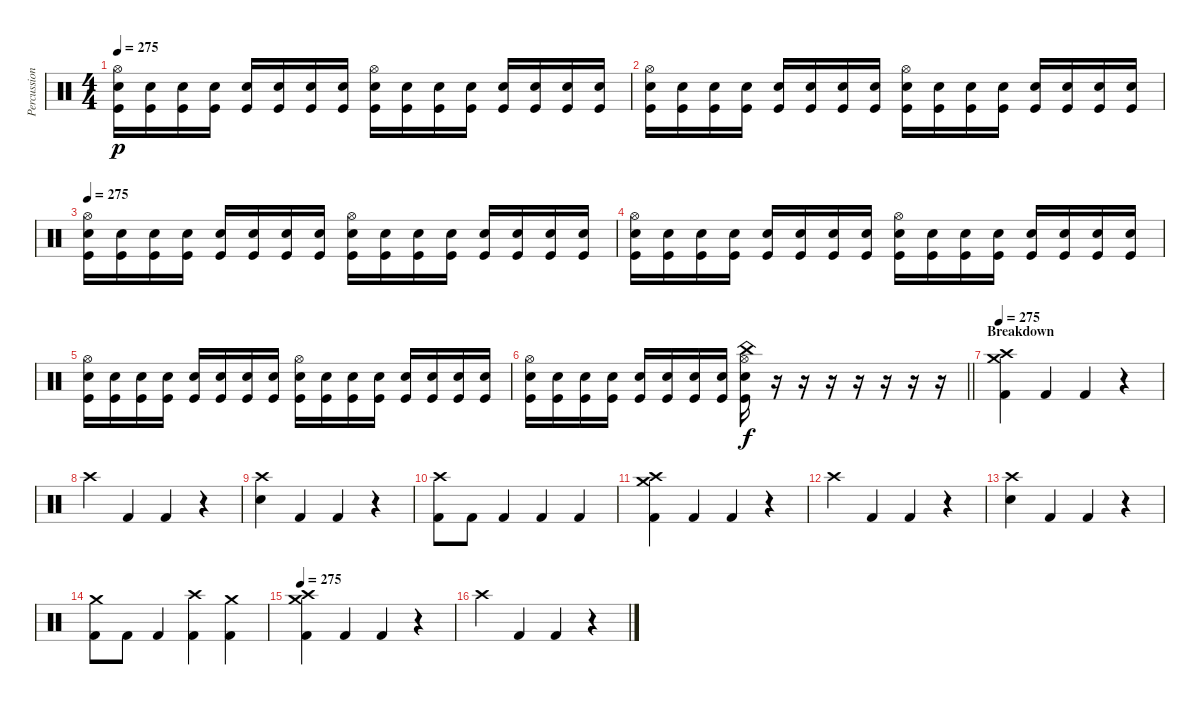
\track ("Percussion" "Percussion") {instrument percussion}
\staff {score}
\articulation defaults
\ts (4 4)
\tempo 275
\clef neutral
\ks c
("Hi-Hat (open)" "Electric Snare (hit)" "Kick (hit)").16{dy p} ("Electric Snare (hit)" "Kick (hit)").16 ("Electric Snare (hit)" "Kick (hit)").16 ("Electric Snare (hit)" "Kick (hit)").16 ("Electric Snare (hit)" "Kick (hit)").16 ("Electric Snare (hit)" "Kick (hit)").16 ("Electric Snare (hit)" "Kick (hit)").16 ("Electric Snare (hit)" "Kick (hit)").16 ("Electric Snare (hit)" "Hi-Hat (open)" "Kick (hit)").16 ("Electric Snare (hit)" "Kick (hit)").16 ("Electric Snare (hit)" "Kick (hit)").16 ("Electric Snare (hit)" "Kick (hit)").16 ("Electric Snare (hit)" "Kick (hit)").16 ("Electric Snare (hit)" "Kick (hit)").16 ("Electric Snare (hit)" "Kick (hit)").16 ("Electric Snare (hit)" "Kick (hit)").16 |
("Hi-Hat (open)" "Electric Snare (hit)" "Kick (hit)").16 ("Electric Snare (hit)" "Kick (hit)").16 ("Electric Snare (hit)" "Kick (hit)").16 ("Electric Snare (hit)" "Kick (hit)").16 ("Electric Snare (hit)" "Kick (hit)").16 ("Electric Snare (hit)" "Kick (hit)").16 ("Electric Snare (hit)" "Kick (hit)").16 ("Electric Snare (hit)" "Kick (hit)").16 ("Electric Snare (hit)" "Hi-Hat (open)" "Kick (hit)").16 ("Electric Snare (hit)" "Kick (hit)").16 ("Electric Snare (hit)" "Kick (hit)").16 ("Electric Snare (hit)" "Kick (hit)").16 ("Electric Snare (hit)" "Kick (hit)").16 ("Electric Snare (hit)" "Kick (hit)").16 ("Electric Snare (hit)" "Kick (hit)").16 ("Electric Snare (hit)" "Kick (hit)").16 |
\tempo 275
("Hi-Hat (open)" "Electric Snare (hit)" "Kick (hit)").16 ("Electric Snare (hit)" "Kick (hit)").16 ("Electric Snare (hit)" "Kick (hit)").16 ("Electric Snare (hit)" "Kick (hit)").16 ("Electric Snare (hit)" "Kick (hit)").16 ("Electric Snare (hit)" "Kick (hit)").16 ("Electric Snare (hit)" "Kick (hit)").16 ("Electric Snare (hit)" "Kick (hit)").16 ("Electric Snare (hit)" "Hi-Hat (open)" "Kick (hit)").16 ("Electric Snare (hit)" "Kick (hit)").16 ("Electric Snare (hit)" "Kick (hit)").16 ("Electric Snare (hit)" "Kick (hit)").16 ("Electric Snare (hit)" "Kick (hit)").16 ("Electric Snare (hit)" "Kick (hit)").16 ("Electric Snare (hit)" "Kick (hit)").16 ("Electric Snare (hit)" "Kick (hit)").16 |
("Hi-Hat (open)" "Electric Snare (hit)" "Kick (hit)").16 ("Electric Snare (hit)" "Kick (hit)").16 ("Electric Snare (hit)" "Kick (hit)").16 ("Electric Snare (hit)" "Kick (hit)").16 ("Electric Snare (hit)" "Kick (hit)").16 ("Electric Snare (hit)" "Kick (hit)").16 ("Electric Snare (hit)" "Kick (hit)").16 ("Electric Snare (hit)" "Kick (hit)").16 ("Electric Snare (hit)" "Hi-Hat (open)" "Kick (hit)").16 ("Electric Snare (hit)" "Kick (hit)").16 ("Electric Snare (hit)" "Kick (hit)").16 ("Electric Snare (hit)" "Kick (hit)").16 ("Electric Snare (hit)" "Kick (hit)").16 ("Electric Snare (hit)" "Kick (hit)").16 ("Electric Snare (hit)" "Kick (hit)").16 ("Electric Snare (hit)" "Kick (hit)").16 |
("Hi-Hat (open)" "Electric Snare (hit)" "Kick (hit)").16 ("Electric Snare (hit)" "Kick (hit)").16 ("Electric Snare (hit)" "Kick (hit)").16 ("Electric Snare (hit)" "Kick (hit)").16 ("Electric Snare (hit)" "Kick (hit)").16 ("Electric Snare (hit)" "Kick (hit)").16 ("Electric Snare (hit)" "Kick (hit)").16 ("Electric Snare (hit)" "Kick (hit)").16 ("Electric Snare (hit)" "Hi-Hat (open)" "Kick (hit)").16 ("Electric Snare (hit)" "Kick (hit)").16 ("Electric Snare (hit)" "Kick (hit)").16 ("Electric Snare (hit)" "Kick (hit)").16 ("Electric Snare (hit)" "Kick (hit)").16 ("Electric Snare (hit)" "Kick (hit)").16 ("Electric Snare (hit)" "Kick (hit)").16 ("Electric Snare (hit)" "Kick (hit)").16 |
\barLineRight lightlight
("Hi-Hat (open)" "Electric Snare (hit)" "Kick (hit)").16 ("Electric Snare (hit)" "Kick (hit)").16 ("Electric Snare (hit)" "Kick (hit)").16 ("Electric Snare (hit)" "Kick (hit)").16 ("Electric Snare (hit)" "Kick (hit)").16 ("Electric Snare (hit)" "Kick (hit)").16 ("Electric Snare (hit)" "Kick (hit)").16 ("Electric Snare (hit)" "Kick (hit)").16 ("China (hit)" "Hi-Hat (open)" "Electric Snare (hit)" "Kick (hit)").16{dy f} r.16 r.16 r.16 r.16 r.16 r.16 r.16 |
\section ("" "Breakdown")
\tempo 275
("Crash high (hit)" "Crash medium (hit)" "Kick (hit) 2").4 "Kick (hit) 2".4 "Kick (hit) 2".4 r.4 |
"Crash high (hit)".4 "Kick (hit) 2".4 "Kick (hit) 2".4 r.4 |
("Crash high (hit)" "Electric Snare (hit)").4 "Kick (hit) 2".4 "Kick (hit) 2".4 r.4 |
("Crash high (hit)" "Kick (hit) 2").8 "Kick (hit) 2".8 "Kick (hit) 2".4 "Kick (hit) 2".4 "Kick (hit) 2".4 |
("Crash high (hit)" "Crash medium (hit)" "Kick (hit) 2").4 "Kick (hit) 2".4 "Kick (hit) 2".4 r.4 |
"Crash high (hit)".4 "Kick (hit) 2".4 "Kick (hit) 2".4 r.4 |
("Crash high (hit)" "Electric Snare (hit)").4 "Kick (hit) 2".4 "Kick (hit) 2".4 r.4 |
("Crash medium (hit)" "Kick (hit) 2").8 "Kick (hit) 2".8 "Kick (hit) 2".4 ("Crash high (hit)" "Kick (hit) 2").4 ("Crash medium (hit)" "Kick (hit) 2").4 |
\tempo 275
("Crash high (hit)" "Crash medium (hit)" "Kick (hit) 2").4 "Kick (hit) 2".4 "Kick (hit) 2".4 r.4 |
"Crash high (hit)".4 "Kick (hit) 2".4 "Kick (hit) 2".4 r.4
